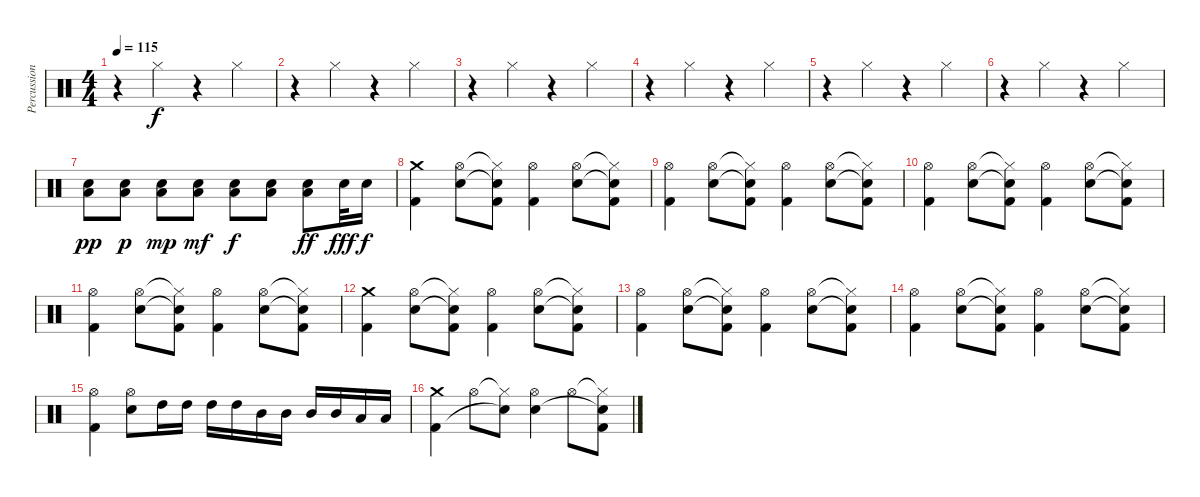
\track ("Percussion" "Percussion") {instrument percussion}
\staff {score}
\articulation defaults
\ts (4 4)
\tempo 115
\clef neutral
\ks c
r.4{dy f} "Hi-Hat (closed)".4 r.4 "Hi-Hat (closed)".4 |
r.4 "Hi-Hat (closed)".4 r.4 "Hi-Hat (closed)".4 |
r.4 "Hi-Hat (closed)".4 r.4 "Hi-Hat (closed)".4 |
r.4 "Hi-Hat (closed)".4 r.4 "Hi-Hat (closed)".4 |
r.4 "Hi-Hat (closed)".4 r.4 "Hi-Hat (closed)".4 |
r.4 "Hi-Hat (closed)".4 r.4 "Hi-Hat (closed)".4 |
("Snare (hit) 2" "Low Tom (hit)").8{dy pp} ("Snare (hit) 2" "Low Tom (hit)").8{dy p} ("Snare (hit) 2" "Low Tom (hit)").8{dy mp} ("Snare (hit) 2" "Low Tom (hit)").8{dy mf} ("Snare (hit) 2" "Low Tom (hit)").8{dy f} ("Snare (hit) 2" "Low Tom (hit)").8 ("Snare (hit) 2" "Low Tom (hit)").8{dy ff} "Snare (hit) 2".32{dy fff} "Snare (hit) 2".16{dy f} |
("Crash medium (hit)" "Kick (hit) 2").4 ("Hi-Hat (open)" "Snare (hit) 2").8 ("Hi-Hat (closed)"{t} "Snare (hit) 2"{t} "Kick (hit) 2").8 ("Hi-Hat (open)" "Kick (hit) 2").4 ("Hi-Hat (open)" "Snare (hit) 2").8 ("Hi-Hat (closed)"{t} "Snare (hit) 2"{t} "Kick (hit) 2").8 |
("Hi-Hat (open)" "Kick (hit) 2").4 ("Hi-Hat (open)" "Snare (hit) 2").8 ("Hi-Hat (closed)"{t} "Snare (hit) 2"{t} "Kick (hit) 2").8 ("Hi-Hat (open)" "Kick (hit) 2").4 ("Hi-Hat (open)" "Snare (hit) 2").8 ("Hi-Hat (closed)"{t} "Snare (hit) 2"{t} "Kick (hit) 2").8 |
("Hi-Hat (open)" "Kick (hit) 2").4 ("Hi-Hat (open)" "Snare (hit) 2").8 ("Hi-Hat (closed)"{t} "Snare (hit) 2"{t} "Kick (hit) 2").8 ("Hi-Hat (open)" "Kick (hit) 2").4 ("Hi-Hat (open)" "Snare (hit) 2").8 ("Hi-Hat (closed)"{t} "Snare (hit) 2"{t} "Kick (hit) 2").8 |
("Hi-Hat (open)" "Kick (hit) 2").4 ("Hi-Hat (open)" "Snare (hit) 2").8 ("Hi-Hat (closed)"{t} "Snare (hit) 2"{t} "Kick (hit) 2").8 ("Hi-Hat (open)" "Kick (hit) 2").4 ("Hi-Hat (open)" "Snare (hit) 2").8 ("Hi-Hat (closed)"{t} "Snare (hit) 2"{t} "Kick (hit) 2").8 |
("Crash medium (hit)" "Kick (hit) 2").4 ("Hi-Hat (open)" "Snare (hit) 2").8 ("Hi-Hat (closed)"{t} "Snare (hit) 2"{t} "Kick (hit) 2").8 ("Hi-Hat (open)" "Kick (hit) 2").4 ("Hi-Hat (open)" "Snare (hit) 2").8 ("Hi-Hat (closed)"{t} "Snare (hit) 2"{t} "Kick (hit) 2").8 |
("Hi-Hat (open)" "Kick (hit) 2").4 ("Hi-Hat (open)" "Snare (hit) 2").8 ("Hi-Hat (closed)"{t} "Snare (hit) 2"{t} "Kick (hit) 2").8 ("Hi-Hat (open)" "Kick (hit) 2").4 ("Hi-Hat (open)" "Snare (hit) 2").8 ("Hi-Hat (closed)"{t} "Snare (hit) 2"{t} "Kick (hit) 2").8 |
("Hi-Hat (open)" "Kick (hit) 2").4 ("Hi-Hat (open)" "Snare (hit) 2").8 ("Hi-Hat (closed)"{t} "Snare (hit) 2"{t} "Kick (hit) 2").8 ("Hi-Hat (open)" "Kick (hit) 2").4 ("Hi-Hat (open)" "Snare (hit) 2").8 ("Hi-Hat (closed)"{t} "Snare (hit) 2"{t} "Kick (hit) 2").8 |
("Hi-Hat (open)" "Kick (hit) 2").4 ("Hi-Hat (open)" "Snare (hit) 2").8 "High Tom (hit)".16 "High Tom (hit)".16 "High Tom (hit)".16 "High Tom (hit)".16 "Mid Tom (hit)".16 "Mid Tom (hit)".16 "Mid Tom (hit)".16 "Mid Tom (hit)".16 "Low Tom (hit)".16 "Low Tom (hit)".16 |
("Crash medium (hit)" "Kick (hit) 2").4 "Hi-Hat (open)".8 ("Hi-Hat (closed)"{t} "Snare (hit) 2"{t}).8 ("Hi-Hat (open)" "Snare (hit) 2").4 "Hi-Hat (open)".8 ("Hi-Hat (closed)"{t} "Snare (hit) 2"{t} "Kick (hit) 2").8
